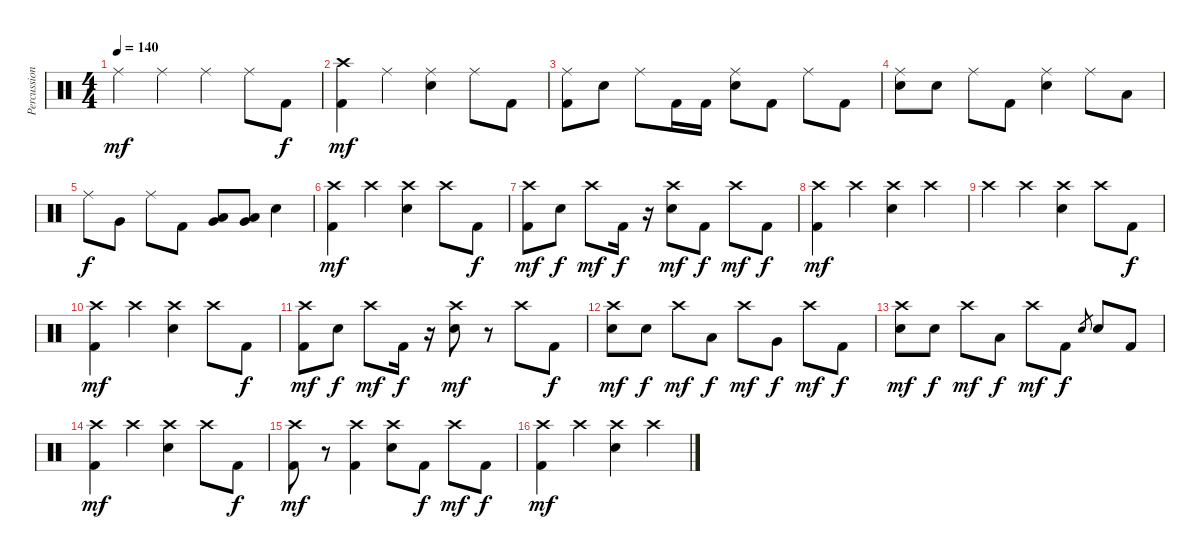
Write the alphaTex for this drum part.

\track ("Percussion" "Percussion") {instrument percussion}
\staff {score}
\articulation defaults
\ts (4 4)
\tempo 140
\clef neutral
\ks c "Ride (middle)".4{dy mf} "Ride (middle)".4 "Ride (middle)".4 "Ride (middle)".8 "Kick (hit) 2".8{dy f}
|
("Crash high (hit)" "Kick (hit) 2").4{dy mf} "Ride (middle)".4 ("Ride (middle)" "Snare (hit) 2").4 "Ride (middle)".8 "Kick (hit) 2".8 |
("Ride (middle)" "Kick (hit) 2").8 "Snare (hit) 2".8 "Ride (middle)".8 "Kick (hit) 2".16 "Kick (hit) 2".16 ("Ride (middle)" "Snare (hit) 2").8 "Kick (hit) 2".8 "Ride (middle)".8 "Kick (hit) 2".8 |
("Ride (middle)" "Snare (hit) 2").8 "Snare (hit) 2".8 "Ride (middle)".8 "Kick (hit) 2".8 ("Ride (middle)" "Snare (hit) 2").4 "Ride (middle)".8 "Low Floor Tom (hit)".8 |
"Ride (middle)".8{dy f} "Very Low Tom (hit)".8 "Ride (middle)".8 "Kick (hit) 2".8 ("Low Tom (hit)" "Very Low Tom (hit)").8 ("Low Tom (hit)" "Very Low Tom (hit)").8 "Snare (hit) 2".4 |
("Crash high (hit)" "Kick (hit) 2").4{dy mf} "Crash high (hit)".4 ("Crash high (hit)" "Snare (hit) 2").4 "Crash high (hit)".8 "Kick (hit) 2".8{dy f} |
("Crash high (hit)" "Kick (hit) 2").8{dy mf} "Snare (hit) 2".8{dy f} "Crash high (hit)".8{dy mf} "Kick (hit) 2".16{dy f} r.16 ("Crash high (hit)" "Snare (hit) 2").8{dy mf} "Kick (hit) 2".8{dy f} "Crash high (hit)".8{dy mf} "Kick (hit) 2".8{dy f} |
("Crash high (hit)" "Kick (hit) 2").4{dy mf} "Crash high (hit)".4 ("Crash high (hit)" "Snare (hit) 2").4 "Crash high (hit)".4 |
"Crash high (hit)".4 "Crash high (hit)".4 ("Crash high (hit)" "Snare (hit) 2").4 "Crash high (hit)".8 "Kick (hit) 2".8{dy f} |
("Crash high (hit)" "Kick (hit) 2").4{dy mf} "Crash high (hit)".4 ("Crash high (hit)" "Snare (hit) 2").4 "Crash high (hit)".8 "Kick (hit) 2".8{dy f} |
("Crash high (hit)" "Kick (hit) 2").8{dy mf} "Snare (hit) 2".8{dy f} "Crash high (hit)".8{dy mf} "Kick (hit) 2".16{dy f} r.16 ("Crash high (hit)" "Snare (hit) 2").8{dy mf} r.8 "Crash high (hit)".8 "Kick (hit) 2".8{dy f} |
("Crash high (hit)" "Snare (hit) 2").8{dy mf} "Snare (hit) 2".8{dy f} "Crash high (hit)".8{dy mf} "Low Tom (hit)".8{dy f} "Crash high (hit)".8{dy mf} "Very Low Tom (hit)".8{dy f} "Crash high (hit)".8{dy mf} "Kick (hit) 2".8{dy f} |
("Crash high (hit)" "Snare (hit) 2").8{dy mf} "Snare (hit) 2".8{dy f} "Crash high (hit)".8{dy mf} "Low Tom (hit)".8{dy f} "Crash high (hit)".8{dy mf} "Kick (hit) 2".8{dy f} "Snare (hit) 2".8{gr} "Snare (hit) 2".8 "Kick (hit) 2".8 |
("Crash high (hit)" "Kick (hit) 2").4{dy mf} "Crash high (hit)".4 ("Crash high (hit)" "Snare (hit) 2").4 "Crash high (hit)".8 "Kick (hit) 2".8{dy f} |
("Crash high (hit)" "Kick (hit) 2").8{dy mf} r.8 ("Crash high (hit)" "Kick (hit) 2").4 ("Crash high (hit)" "Snare (hit) 2").8 "Kick (hit) 2".8{dy f} "Crash high (hit)".8{dy mf} "Kick (hit) 2".8{dy f} |
("Crash high (hit)" "Kick (hit) 2").4{dy mf} "Crash high (hit)".4 ("Crash high (hit)" "Snare (hit) 2").4 "Crash high (hit)".4
